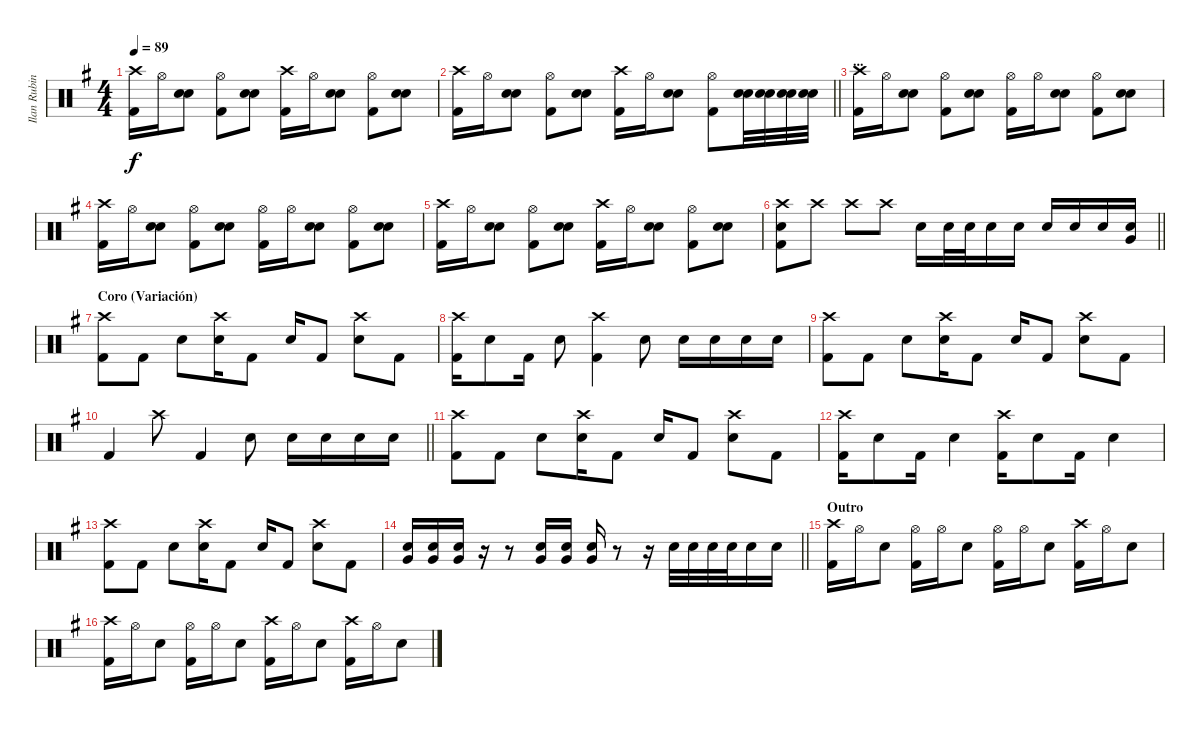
\track ("Ilan Rubin (Batería)" "Ilan Rubin") {instrument percussion}
\staff {score}
\articulation defaults
\ts (4 4)
\tempo 89
\clef neutral
\ks g
("Kick (hit) 2" "Crash high (hit)").16{dy f} "Hi-Hat (open)".16 ("Electric Snare (hit)" "Electric Snare (hit)").8 ("Kick (hit) 2" "Hi-Hat (open)").8 ("Electric Snare (hit)" "Electric Snare (hit)").8 ("Kick (hit) 2" "Crash high (hit)").16 "Hi-Hat (open)".16 ("Electric Snare (hit)" "Electric Snare (hit)").8 ("Kick (hit) 2" "Hi-Hat (open)").8 ("Electric Snare (hit)" "Electric Snare (hit)").8 |
\barLineRight lightlight
("Kick (hit) 2" "Crash high (hit)").16 "Hi-Hat (open)".16 ("Electric Snare (hit)" "Electric Snare (hit)").8 ("Kick (hit) 2" "Hi-Hat (open)").8 ("Electric Snare (hit)" "Electric Snare (hit)").8 ("Kick (hit) 2" "Crash high (hit)").16 "Hi-Hat (open)".16 ("Electric Snare (hit)" "Electric Snare (hit)").8 ("Kick (hit) 2" "Hi-Hat (open)").8 ("Electric Snare (hit)" "Electric Snare (hit)").32 ("Electric Snare (hit)" "Electric Snare (hit)").32 ("Electric Snare (hit)" "Electric Snare (hit)").32 ("Electric Snare (hit)" "Electric Snare (hit)").32 |
\section ("" "...")
("Kick (hit) 2" "Crash high (hit)").16 "Hi-Hat (open)".16 ("Electric Snare (hit)" "Electric Snare (hit)").8 ("Kick (hit) 2" "Hi-Hat (open)").8 ("Electric Snare (hit)" "Electric Snare (hit)").8 ("Kick (hit) 2" "Hi-Hat (open)").16 "Hi-Hat (open)".16 ("Electric Snare (hit)" "Electric Snare (hit)").8 ("Kick (hit) 2" "Hi-Hat (open)").8 ("Electric Snare (hit)" "Electric Snare (hit)").8 |
("Kick (hit) 2" "Crash high (hit)").16 "Hi-Hat (open)".16 ("Electric Snare (hit)" "Electric Snare (hit)").8 ("Kick (hit) 2" "Hi-Hat (open)").8 ("Electric Snare (hit)" "Electric Snare (hit)").8 ("Kick (hit) 2" "Hi-Hat (open)").16 "Hi-Hat (open)".16 ("Electric Snare (hit)" "Electric Snare (hit)").8 ("Kick (hit) 2" "Hi-Hat (open)").8 ("Electric Snare (hit)" "Electric Snare (hit)").8 |
("Kick (hit) 2" "Crash high (hit)").16 "Hi-Hat (open)".16 ("Electric Snare (hit)" "Electric Snare (hit)").8 ("Kick (hit) 2" "Hi-Hat (open)").8 ("Electric Snare (hit)" "Electric Snare (hit)").8 ("Kick (hit) 2" "Crash high (hit)").16 "Hi-Hat (open)".16 ("Electric Snare (hit)" "Electric Snare (hit)").8 ("Kick (hit) 2" "Hi-Hat (open)").8 ("Electric Snare (hit)" "Electric Snare (hit)").8 |
\barLineRight lightlight
("Kick (hit) 2" "Electric Snare (hit)" "Crash high (hit)").8 "Crash high (hit)".8 "Crash high (hit)".8 "Crash high (hit)".8 "Electric Snare (hit)".16 "Electric Snare (hit)".32 "Electric Snare (hit)".32 "Electric Snare (hit)".16 "Electric Snare (hit)".16 "Electric Snare (hit)".16 "Electric Snare (hit)".16 "Electric Snare (hit)".16 ("Very Low Tom (hit)" "Electric Snare (hit)").16 |
\section ("" "Coro (Variación)")
("Kick (hit) 2" "Crash high (hit)").8 "Kick (hit) 2".8 "Electric Snare (hit)".8 ("Electric Snare (hit)" "Crash high (hit)").16 "Kick (hit) 2".8 "Electric Snare (hit)".16 "Kick (hit) 2".8 ("Electric Snare (hit)" "Crash high (hit)").8 "Kick (hit) 2".8 |
("Kick (hit) 2" "Crash high (hit)").16 "Electric Snare (hit)".8 "Kick (hit) 2".16 "Electric Snare (hit)".8 ("Kick (hit) 2" "Crash high (hit)").4 "Electric Snare (hit)".8 "Electric Snare (hit)".16 "Electric Snare (hit)".16 "Electric Snare (hit)".16 "Electric Snare (hit)".16 |
("Kick (hit) 2" "Crash high (hit)").8 "Kick (hit) 2".8 "Electric Snare (hit)".8 ("Electric Snare (hit)" "Crash high (hit)").16 "Kick (hit) 2".8 "Electric Snare (hit)".16 "Kick (hit) 2".8 ("Electric Snare (hit)" "Crash high (hit)").8 "Kick (hit) 2".8 |
\barLineRight lightlight "Kick (hit) 2".4 "Crash high (hit)".8 "Kick (hit) 2".4 "Electric Snare (hit)".8 "Electric Snare (hit)".16 "Electric Snare (hit)".16 "Electric Snare (hit)".16 "Electric Snare (hit)".16
|
("Kick (hit) 2" "Crash high (hit)").8 "Kick (hit) 2".8 "Electric Snare (hit)".8 ("Electric Snare (hit)" "Crash high (hit)").16 "Kick (hit) 2".8 "Electric Snare (hit)".16 "Kick (hit) 2".8 ("Electric Snare (hit)" "Crash high (hit)").8 "Kick (hit) 2".8 |
("Kick (hit) 2" "Crash high (hit)").16 "Electric Snare (hit)".8 "Kick (hit) 2".16 "Electric Snare (hit)".4 ("Kick (hit) 2" "Crash high (hit)").16 "Electric Snare (hit)".8 "Kick (hit) 2".16 "Electric Snare (hit)".4 |
("Kick (hit) 2" "Crash high (hit)").8 "Kick (hit) 2".8 "Electric Snare (hit)".8 ("Electric Snare (hit)" "Crash high (hit)").16 "Kick (hit) 2".8 "Electric Snare (hit)".16 "Kick (hit) 2".8 ("Electric Snare (hit)" "Crash high (hit)").8 "Kick (hit) 2".8 |
\barLineRight lightlight
("Very Low Tom (hit)" "Electric Snare (hit)").16 ("Very Low Tom (hit)" "Electric Snare (hit)").16 ("Very Low Tom (hit)" "Electric Snare (hit)").16 r.16 r.8 ("Very Low Tom (hit)" "Electric Snare (hit)").16 ("Very Low Tom (hit)" "Electric Snare (hit)").16 ("Very Low Tom (hit)" "Electric Snare (hit)").16 r.8 r.16 "Electric Snare (hit)".32 "Electric Snare (hit)".32 "Electric Snare (hit)".32 "Electric Snare (hit)".32 "Electric Snare (hit)".16 "Electric Snare (hit)".16 |
\section ("" "Outro")
("Kick (hit) 2" "Crash high (hit)").16 "Hi-Hat (open)".16 "Electric Snare (hit)".8 ("Kick (hit) 2" "Hi-Hat (open)").16 "Hi-Hat (open)".16 "Electric Snare (hit)".8 ("Kick (hit) 2" "Hi-Hat (open)").16 "Hi-Hat (open)".16 "Electric Snare (hit)".8 ("Kick (hit) 2" "Crash high (hit)").16 "Hi-Hat (open)".16 "Electric Snare (hit)".8 |
("Kick (hit) 2" "Crash high (hit)").16 "Hi-Hat (open)".16 "Electric Snare (hit)".8 ("Kick (hit) 2" "Hi-Hat (open)").16 "Hi-Hat (open)".16 "Electric Snare (hit)".8 ("Kick (hit) 2" "Crash high (hit)").16 "Hi-Hat (open)".16 "Electric Snare (hit)".8 ("Kick (hit) 2" "Crash high (hit)").16 "Hi-Hat (open)".16 "Electric Snare (hit)".8
